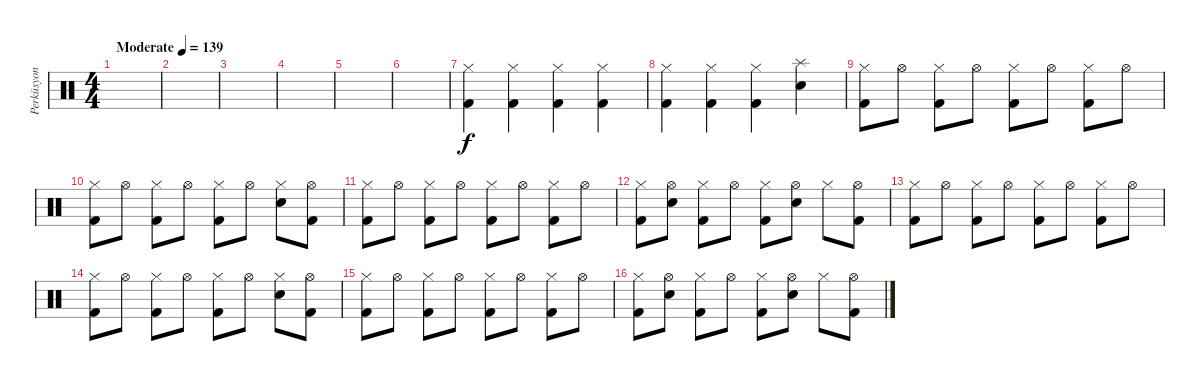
\track ("Perküsyon" "Perküsyon") {instrument percussion}
\staff {score}
\articulation defaults
\ts (4 4)
\tempo (139 "Moderate")
\clef neutral
\ks c
|
|
|
|
|
|
("Hi-Hat (closed)" "Kick (hit) 2").4 ("Hi-Hat (closed)" "Kick (hit) 2").4 ("Hi-Hat (closed)" "Kick (hit) 2").4 ("Hi-Hat (closed)" "Kick (hit) 2").4 |
("Hi-Hat (closed)" "Kick (hit) 2").4 ("Hi-Hat (closed)" "Kick (hit) 2").4 ("Hi-Hat (closed)" "Kick (hit) 2").4 ("Splash (hit)" "Snare (hit) 2").4 |
("Hi-Hat (closed)" "Kick (hit) 2").8 "Hi-Hat (open)".8 ("Hi-Hat (closed)" "Kick (hit) 2").8 "Hi-Hat (open)".8 ("Hi-Hat (closed)" "Kick (hit) 2").8 "Hi-Hat (open)".8 ("Hi-Hat (closed)" "Kick (hit) 2").8 "Hi-Hat (open)".8 |
("Hi-Hat (closed)" "Kick (hit) 2").8 "Hi-Hat (open)".8 ("Hi-Hat (closed)" "Kick (hit) 2").8 "Hi-Hat (open)".8 ("Hi-Hat (closed)" "Kick (hit) 2").8 "Hi-Hat (open)".8 ("Hi-Hat (closed)" "Snare (hit) 2").8 ("Hi-Hat (open)" "Kick (hit) 2").8 |
("Hi-Hat (closed)" "Kick (hit) 2").8 "Hi-Hat (open)".8 ("Hi-Hat (closed)" "Kick (hit) 2").8 "Hi-Hat (open)".8 ("Hi-Hat (closed)" "Kick (hit) 2").8 "Hi-Hat (open)".8 ("Hi-Hat (closed)" "Kick (hit) 2").8 "Hi-Hat (open)".8 |
("Hi-Hat (closed)" "Kick (hit) 2").8 ("Hi-Hat (open)" "Snare (hit) 2").8 ("Hi-Hat (closed)" "Kick (hit) 2").8 "Hi-Hat (open)".8 ("Hi-Hat (closed)" "Kick (hit) 2").8 ("Hi-Hat (open)" "Snare (hit) 2").8 "Hi-Hat (closed)".8 ("Hi-Hat (open)" "Kick (hit) 2").8 |
("Hi-Hat (closed)" "Kick (hit) 2").8 "Hi-Hat (open)".8 ("Hi-Hat (closed)" "Kick (hit) 2").8 "Hi-Hat (open)".8 ("Hi-Hat (closed)" "Kick (hit) 2").8 "Hi-Hat (open)".8 ("Hi-Hat (closed)" "Kick (hit) 2").8 "Hi-Hat (open)".8 |
("Hi-Hat (closed)" "Kick (hit) 2").8 "Hi-Hat (open)".8 ("Hi-Hat (closed)" "Kick (hit) 2").8 "Hi-Hat (open)".8 ("Hi-Hat (closed)" "Kick (hit) 2").8 "Hi-Hat (open)".8 ("Hi-Hat (closed)" "Snare (hit) 2").8 ("Hi-Hat (open)" "Kick (hit) 2").8 |
("Hi-Hat (closed)" "Kick (hit) 2").8 "Hi-Hat (open)".8 ("Hi-Hat (closed)" "Kick (hit) 2").8 "Hi-Hat (open)".8 ("Hi-Hat (closed)" "Kick (hit) 2").8 "Hi-Hat (open)".8 ("Hi-Hat (closed)" "Kick (hit) 2").8 "Hi-Hat (open)".8 |
("Hi-Hat (closed)" "Kick (hit) 2").8 ("Hi-Hat (open)" "Snare (hit) 2").8 ("Hi-Hat (closed)" "Kick (hit) 2").8 "Hi-Hat (open)".8 ("Hi-Hat (closed)" "Kick (hit) 2").8 ("Hi-Hat (open)" "Snare (hit) 2").8 "Hi-Hat (closed)".8 ("Hi-Hat (open)" "Kick (hit) 2").8
